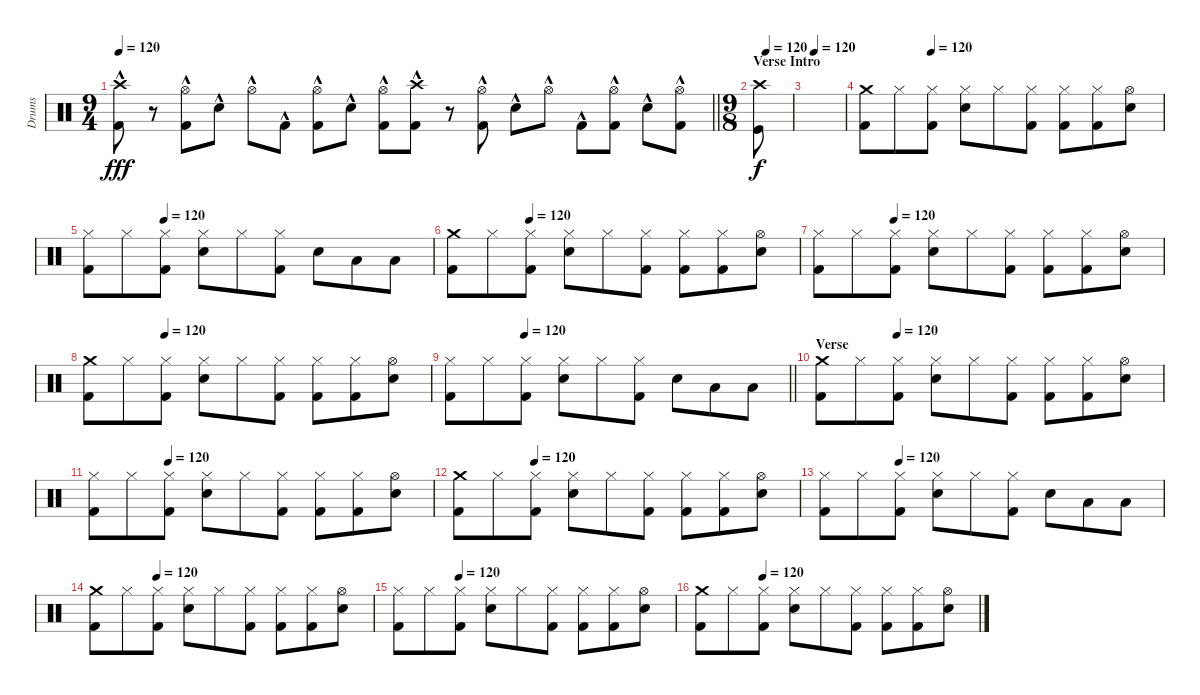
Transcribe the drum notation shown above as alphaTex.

\track ("Drums" "Drums") {instrument percussion}
\staff {score}
\articulation defaults
\ts (9 4)
\tempo 120
\clef neutral
\barLineRight lightlight
\ks c
("Kick (hit) 2"{hac} "Crash high (hit)"{hac}).8{dy fff} r.8 ("Kick (hit) 2"{hac} "Hi-Hat (open)"{hac}).8 "Electric Snare (hit)"{hac}.8 "Hi-Hat (open)"{hac}.8 "Kick (hit) 2"{hac}.8 ("Kick (hit) 2"{hac} "Hi-Hat (open)"{hac}).8 "Electric Snare (hit)"{hac}.8 ("Kick (hit) 2"{hac} "Hi-Hat (open)"{hac}).8 ("Kick (hit) 2"{hac} "Crash high (hit)"{hac}).8 r.8 ("Kick (hit) 2"{hac} "Hi-Hat (open)"{hac}).8 "Electric Snare (hit)"{hac}.8 "Hi-Hat (open)"{hac}.8 "Kick (hit) 2"{hac}.8 ("Kick (hit) 2"{hac} "Hi-Hat (open)"{hac}).8 "Electric Snare (hit)"{hac}.8 ("Kick (hit) 2"{hac} "Hi-Hat (open)"{hac}).8 |
\ts (9 8)
\section ("" "Verse Intro")
\tempo (120 0.2222222222222222)
("Crash high (hit)" "Kick (hit)").8{dy f} |
\tempo (120 0.2222222222222222)
|
\tempo (120 0.2222222222222222)
("Kick (hit) 2" "Crash medium (hit)").8 "Hi-Hat (closed)".8 ("Kick (hit) 2" "Hi-Hat (closed)").8 ("Electric Snare (hit)" "Hi-Hat (closed)").8 "Hi-Hat (closed)".8 ("Kick (hit) 2" "Hi-Hat (closed)").8 ("Kick (hit) 2" "Hi-Hat (closed)").8 ("Kick (hit) 2" "Hi-Hat (closed)").8 ("Electric Snare (hit)" "Hi-Hat (open)").8 |
\tempo (120 0.2222222222222222)
("Kick (hit) 2" "Hi-Hat (closed)").8 "Hi-Hat (closed)".8 ("Kick (hit) 2" "Hi-Hat (closed)").8 ("Electric Snare (hit)" "Hi-Hat (closed)").8 "Hi-Hat (closed)".8 ("Kick (hit) 2" "Hi-Hat (closed)").8 "Electric Snare (hit)".8 "Low Tom (hit)".8 "Low Floor Tom (hit)".8 |
\tempo (120 0.2222222222222222)
("Kick (hit) 2" "Crash medium (hit)").8 "Hi-Hat (closed)".8 ("Kick (hit) 2" "Hi-Hat (closed)").8 ("Electric Snare (hit)" "Hi-Hat (closed)").8 "Hi-Hat (closed)".8 ("Kick (hit) 2" "Hi-Hat (closed)").8 ("Kick (hit) 2" "Hi-Hat (closed)").8 ("Kick (hit) 2" "Hi-Hat (closed)").8 ("Electric Snare (hit)" "Hi-Hat (open)").8 |
\tempo (120 0.2222222222222222)
("Kick (hit) 2" "Hi-Hat (closed)").8 "Hi-Hat (closed)".8 ("Kick (hit) 2" "Hi-Hat (closed)").8 ("Electric Snare (hit)" "Hi-Hat (closed)").8 "Hi-Hat (closed)".8 ("Kick (hit) 2" "Hi-Hat (closed)").8 ("Kick (hit) 2" "Hi-Hat (closed)").8 ("Kick (hit) 2" "Hi-Hat (closed)").8 ("Electric Snare (hit)" "Hi-Hat (open)").8 |
\tempo (120 0.2222222222222222)
("Kick (hit) 2" "Crash medium (hit)").8 "Hi-Hat (closed)".8 ("Kick (hit) 2" "Hi-Hat (closed)").8 ("Electric Snare (hit)" "Hi-Hat (closed)").8 "Hi-Hat (closed)".8 ("Kick (hit) 2" "Hi-Hat (closed)").8 ("Kick (hit) 2" "Hi-Hat (closed)").8 ("Kick (hit) 2" "Hi-Hat (closed)").8 ("Electric Snare (hit)" "Hi-Hat (open)").8 |
\tempo (120 0.2222222222222222)
\barLineRight lightlight
("Kick (hit) 2" "Hi-Hat (closed)").8 "Hi-Hat (closed)".8 ("Kick (hit) 2" "Hi-Hat (closed)").8 ("Electric Snare (hit)" "Hi-Hat (closed)").8 "Hi-Hat (closed)".8 ("Kick (hit) 2" "Hi-Hat (closed)").8 "Electric Snare (hit)".8 "Low Tom (hit)".8 "Low Floor Tom (hit)".8 |
\section ("" "Verse")
\tempo (120 0.2222222222222222)
("Kick (hit) 2" "Crash medium (hit)").8 "Hi-Hat (closed)".8 ("Kick (hit) 2" "Hi-Hat (closed)").8 ("Electric Snare (hit)" "Hi-Hat (closed)").8 "Hi-Hat (closed)".8 ("Kick (hit) 2" "Hi-Hat (closed)").8 ("Kick (hit) 2" "Hi-Hat (closed)").8 ("Kick (hit) 2" "Hi-Hat (closed)").8 ("Electric Snare (hit)" "Hi-Hat (open)").8 |
\tempo (120 0.2222222222222222)
("Kick (hit) 2" "Hi-Hat (closed)").8 "Hi-Hat (closed)".8 ("Kick (hit) 2" "Hi-Hat (closed)").8 ("Electric Snare (hit)" "Hi-Hat (closed)").8 "Hi-Hat (closed)".8 ("Kick (hit) 2" "Hi-Hat (closed)").8 ("Kick (hit) 2" "Hi-Hat (closed)").8 ("Kick (hit) 2" "Hi-Hat (closed)").8 ("Electric Snare (hit)" "Hi-Hat (open)").8 |
\tempo (120 0.2222222222222222)
("Kick (hit) 2" "Crash medium (hit)").8 "Hi-Hat (closed)".8 ("Kick (hit) 2" "Hi-Hat (closed)").8 ("Electric Snare (hit)" "Hi-Hat (closed)").8 "Hi-Hat (closed)".8 ("Kick (hit) 2" "Hi-Hat (closed)").8 ("Kick (hit) 2" "Hi-Hat (closed)").8 ("Kick (hit) 2" "Hi-Hat (closed)").8 ("Electric Snare (hit)" "Hi-Hat (open)").8 |
\tempo (120 0.2222222222222222)
("Kick (hit) 2" "Hi-Hat (closed)").8 "Hi-Hat (closed)".8 ("Kick (hit) 2" "Hi-Hat (closed)").8 ("Electric Snare (hit)" "Hi-Hat (closed)").8 "Hi-Hat (closed)".8 ("Kick (hit) 2" "Hi-Hat (closed)").8 "Electric Snare (hit)".8 "Low Tom (hit)".8 "Low Floor Tom (hit)".8 |
\tempo (120 0.2222222222222222)
("Kick (hit) 2" "Crash medium (hit)").8 "Hi-Hat (closed)".8 ("Kick (hit) 2" "Hi-Hat (closed)").8 ("Electric Snare (hit)" "Hi-Hat (closed)").8 "Hi-Hat (closed)".8 ("Kick (hit) 2" "Hi-Hat (closed)").8 ("Kick (hit) 2" "Hi-Hat (closed)").8 ("Kick (hit) 2" "Hi-Hat (closed)").8 ("Electric Snare (hit)" "Hi-Hat (open)").8 |
\tempo (120 0.2222222222222222)
("Kick (hit) 2" "Hi-Hat (closed)").8 "Hi-Hat (closed)".8 ("Kick (hit) 2" "Hi-Hat (closed)").8 ("Electric Snare (hit)" "Hi-Hat (closed)").8 "Hi-Hat (closed)".8 ("Kick (hit) 2" "Hi-Hat (closed)").8 ("Kick (hit) 2" "Hi-Hat (closed)").8 ("Kick (hit) 2" "Hi-Hat (closed)").8 ("Electric Snare (hit)" "Hi-Hat (open)").8 |
\tempo (120 0.2222222222222222)
("Kick (hit) 2" "Crash medium (hit)").8 "Hi-Hat (closed)".8 ("Kick (hit) 2" "Hi-Hat (closed)").8 ("Electric Snare (hit)" "Hi-Hat (closed)").8 "Hi-Hat (closed)".8 ("Kick (hit) 2" "Hi-Hat (closed)").8 ("Kick (hit) 2" "Hi-Hat (closed)").8 ("Kick (hit) 2" "Hi-Hat (closed)").8 ("Electric Snare (hit)" "Hi-Hat (open)").8
